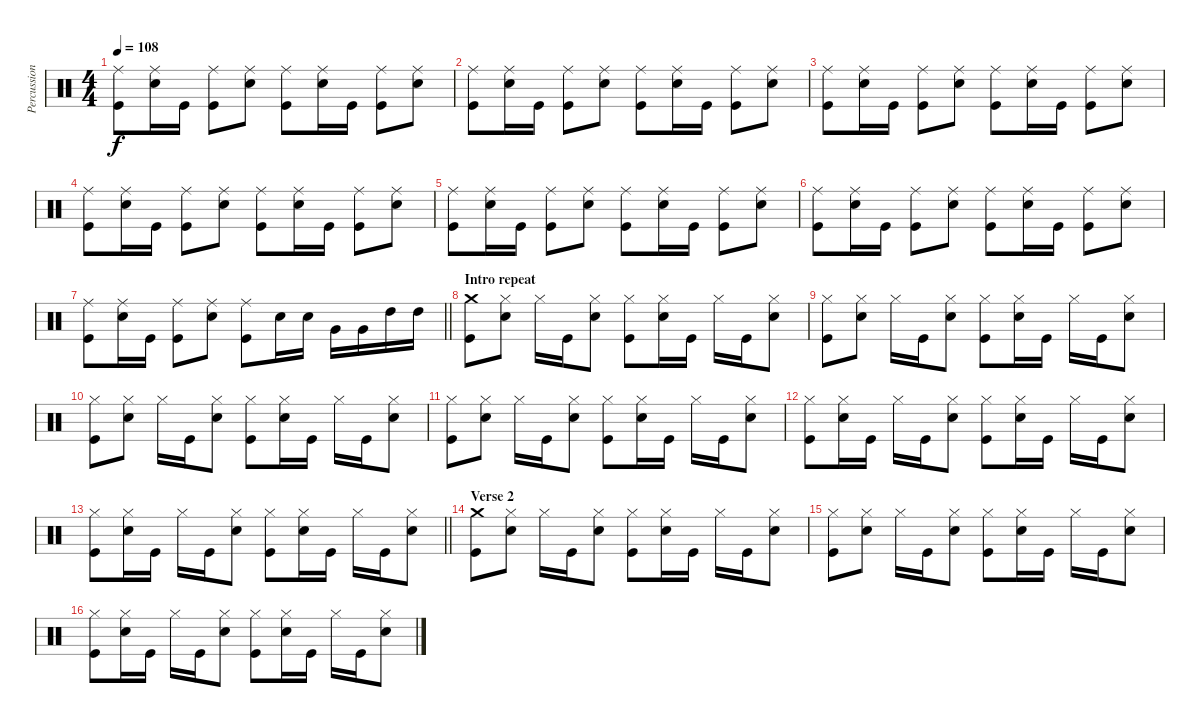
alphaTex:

\track ("Percussion" "Percussion") {instrument percussion}
\staff {score}
\articulation defaults
\ts (4 4)
\tempo 108
\clef neutral
\ks c
("Kick (hit)" "Ride (middle)").8{dy f} ("Ride (middle)" "Snare (hit) 2").16 "Kick (hit)".16 ("Kick (hit)" "Ride (middle)").8 ("Ride (middle)" "Snare (hit) 2").8 ("Kick (hit)" "Ride (middle)").8 ("Ride (middle)" "Snare (hit) 2").16 "Kick (hit)".16 ("Kick (hit)" "Ride (middle)").8 ("Ride (middle)" "Snare (hit) 2").8 |
("Kick (hit)" "Ride (middle)").8 ("Ride (middle)" "Snare (hit) 2").16 "Kick (hit)".16 ("Kick (hit)" "Ride (middle)").8 ("Ride (middle)" "Snare (hit) 2").8 ("Kick (hit)" "Ride (middle)").8 ("Ride (middle)" "Snare (hit) 2").16 "Kick (hit)".16 ("Kick (hit)" "Ride (middle)").8 ("Ride (middle)" "Snare (hit) 2").8 |
("Kick (hit)" "Ride (middle)").8 ("Ride (middle)" "Snare (hit) 2").16 "Kick (hit)".16 ("Kick (hit)" "Ride (middle)").8 ("Ride (middle)" "Snare (hit) 2").8 ("Kick (hit)" "Ride (middle)").8 ("Ride (middle)" "Snare (hit) 2").16 "Kick (hit)".16 ("Kick (hit)" "Ride (middle)").8 ("Ride (middle)" "Snare (hit) 2").8 |
("Kick (hit)" "Ride (middle)").8 ("Ride (middle)" "Snare (hit) 2").16 "Kick (hit)".16 ("Kick (hit)" "Ride (middle)").8 ("Ride (middle)" "Snare (hit) 2").8 ("Kick (hit)" "Ride (middle)").8 ("Ride (middle)" "Snare (hit) 2").16 "Kick (hit)".16 ("Kick (hit)" "Ride (middle)").8 ("Ride (middle)" "Snare (hit) 2").8 |
("Kick (hit)" "Ride (middle)").8 ("Ride (middle)" "Snare (hit) 2").16 "Kick (hit)".16 ("Kick (hit)" "Ride (middle)").8 ("Ride (middle)" "Snare (hit) 2").8 ("Kick (hit)" "Ride (middle)").8 ("Ride (middle)" "Snare (hit) 2").16 "Kick (hit)".16 ("Kick (hit)" "Ride (middle)").8 ("Ride (middle)" "Snare (hit) 2").8 |
("Kick (hit)" "Ride (middle)").8 ("Ride (middle)" "Snare (hit) 2").16 "Kick (hit)".16 ("Kick (hit)" "Ride (middle)").8 ("Ride (middle)" "Snare (hit) 2").8 ("Kick (hit)" "Ride (middle)").8 ("Ride (middle)" "Snare (hit) 2").16 "Kick (hit)".16 ("Kick (hit)" "Ride (middle)").8 ("Ride (middle)" "Snare (hit) 2").8 |
\barLineRight lightlight
("Kick (hit)" "Ride (middle)").8 ("Ride (middle)" "Snare (hit) 2").16 "Kick (hit)".16 ("Kick (hit)" "Ride (middle)").8 ("Ride (middle)" "Snare (hit) 2").8 ("Kick (hit)" "Ride (middle)").8 "Snare (hit) 2".16 "Snare (hit) 2".16 "Very Low Tom (hit)".16 "Very Low Tom (hit)".16 "High Tom (hit)".16 "High Tom (hit)".16 |
\section ("" "Intro repeat")
("Kick (hit)" "Crash medium (hit)").8 ("Hi-Hat (closed)" "Snare (hit) 2").8 "Hi-Hat (closed)".16 "Kick (hit)".16 ("Hi-Hat (closed)" "Snare (hit) 2").8 ("Kick (hit)" "Hi-Hat (closed)").8 ("Hi-Hat (closed)" "Snare (hit) 2").16 "Kick (hit)".16 "Hi-Hat (closed)".16 "Kick (hit)".16 ("Hi-Hat (closed)" "Snare (hit) 2").8 |
("Kick (hit)" "Hi-Hat (closed)").8 ("Hi-Hat (closed)" "Snare (hit) 2").8 "Hi-Hat (closed)".16 "Kick (hit)".16 ("Hi-Hat (closed)" "Snare (hit) 2").8 ("Kick (hit)" "Hi-Hat (closed)").8 ("Hi-Hat (closed)" "Snare (hit) 2").16 "Kick (hit)".16 "Hi-Hat (closed)".16 "Kick (hit)".16 ("Hi-Hat (closed)" "Snare (hit) 2").8 |
("Kick (hit)" "Hi-Hat (closed)").8 ("Hi-Hat (closed)" "Snare (hit) 2").8 "Hi-Hat (closed)".16 "Kick (hit)".16 ("Hi-Hat (closed)" "Snare (hit) 2").8 ("Kick (hit)" "Hi-Hat (closed)").8 ("Hi-Hat (closed)" "Snare (hit) 2").16 "Kick (hit)".16 "Hi-Hat (closed)".16 "Kick (hit)".16 ("Hi-Hat (closed)" "Snare (hit) 2").8 |
("Kick (hit)" "Hi-Hat (closed)").8 ("Hi-Hat (closed)" "Snare (hit) 2").8 "Hi-Hat (closed)".16 "Kick (hit)".16 ("Hi-Hat (closed)" "Snare (hit) 2").8 ("Kick (hit)" "Hi-Hat (closed)").8 ("Hi-Hat (closed)" "Snare (hit) 2").16 "Kick (hit)".16 "Hi-Hat (closed)".16 "Kick (hit)".16 ("Hi-Hat (closed)" "Snare (hit) 2").8 |
("Kick (hit)" "Hi-Hat (closed)").8 ("Hi-Hat (closed)" "Snare (hit) 2").16 "Kick (hit)".16 "Hi-Hat (closed)".16 "Kick (hit)".16 ("Hi-Hat (closed)" "Snare (hit) 2").8 ("Kick (hit)" "Hi-Hat (closed)").8 ("Hi-Hat (closed)" "Snare (hit) 2").16 "Kick (hit)".16 "Hi-Hat (closed)".16 "Kick (hit)".16 ("Hi-Hat (closed)" "Snare (hit) 2").8 |
\barLineRight lightlight
("Kick (hit)" "Hi-Hat (closed)").8 ("Hi-Hat (closed)" "Snare (hit) 2").16 "Kick (hit)".16 "Hi-Hat (closed)".16 "Kick (hit)".16 ("Hi-Hat (closed)" "Snare (hit) 2").8 ("Kick (hit)" "Hi-Hat (closed)").8 ("Hi-Hat (closed)" "Snare (hit) 2").16 "Kick (hit)".16 "Hi-Hat (closed)".16 "Kick (hit)".16 ("Hi-Hat (closed)" "Snare (hit) 2").8 |
\section ("" "Verse 2")
("Kick (hit)" "Crash medium (hit)").8 ("Hi-Hat (closed)" "Snare (hit) 2").8 "Hi-Hat (closed)".16 "Kick (hit)".16 ("Hi-Hat (closed)" "Snare (hit) 2").8 ("Kick (hit)" "Hi-Hat (closed)").8 ("Hi-Hat (closed)" "Snare (hit) 2").16 "Kick (hit)".16 "Hi-Hat (closed)".16 "Kick (hit)".16 ("Hi-Hat (closed)" "Snare (hit) 2").8 |
("Kick (hit)" "Hi-Hat (closed)").8 ("Hi-Hat (closed)" "Snare (hit) 2").8 "Hi-Hat (closed)".16 "Kick (hit)".16 ("Hi-Hat (closed)" "Snare (hit) 2").8 ("Kick (hit)" "Hi-Hat (closed)").8 ("Hi-Hat (closed)" "Snare (hit) 2").16 "Kick (hit)".16 "Hi-Hat (closed)".16 "Kick (hit)".16 ("Hi-Hat (closed)" "Snare (hit) 2").8 |
("Kick (hit)" "Hi-Hat (closed)").8 ("Hi-Hat (closed)" "Snare (hit) 2").16 "Kick (hit)".16 "Hi-Hat (closed)".16 "Kick (hit)".16 ("Hi-Hat (closed)" "Snare (hit) 2").8 ("Kick (hit)" "Hi-Hat (closed)").8 ("Hi-Hat (closed)" "Snare (hit) 2").16 "Kick (hit)".16 "Hi-Hat (closed)".16 "Kick (hit)".16 ("Hi-Hat (closed)" "Snare (hit) 2").8
